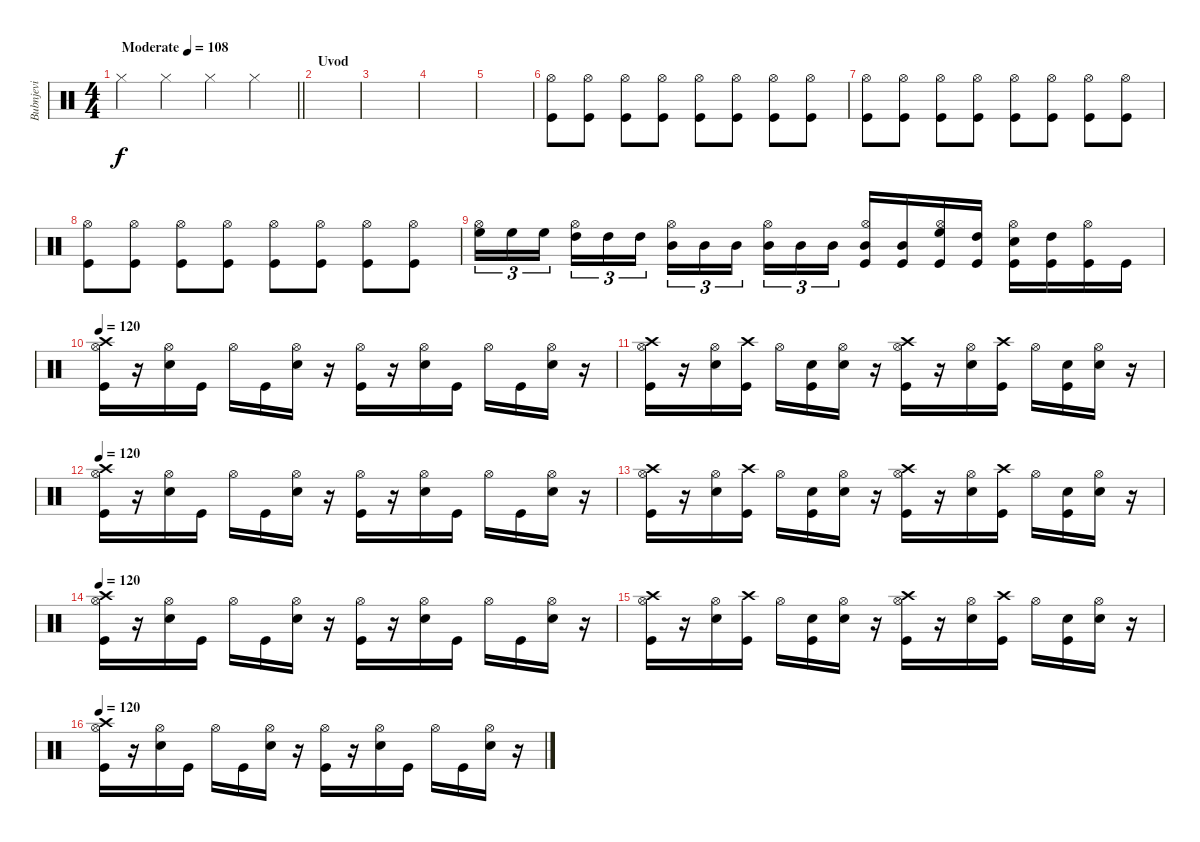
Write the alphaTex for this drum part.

\track ("Bubnjevi" "Bubnjevi") {instrument percussion}
\staff {score}
\articulation defaults
\ts (4 4)
\tempo (108 "Moderate")
\clef neutral
\barLineRight lightlight
\ks c "Hi-Hat (closed)".4{dy f} "Hi-Hat (closed)".4 "Hi-Hat (closed)".4 "Hi-Hat (closed)".4
|
\section ("" "Uvod")
|
|
|
|
("Kick (hit)" "Hi-Hat (open)").8 ("Kick (hit)" "Hi-Hat (open)").8 ("Kick (hit)" "Hi-Hat (open)").8 ("Kick (hit)" "Hi-Hat (open)").8 ("Kick (hit)" "Hi-Hat (open)").8 ("Kick (hit)" "Hi-Hat (open)").8 ("Kick (hit)" "Hi-Hat (open)").8 ("Kick (hit)" "Hi-Hat (open)").8 |
("Kick (hit)" "Hi-Hat (open)").8 ("Kick (hit)" "Hi-Hat (open)").8 ("Kick (hit)" "Hi-Hat (open)").8 ("Kick (hit)" "Hi-Hat (open)").8 ("Kick (hit)" "Hi-Hat (open)").8 ("Kick (hit)" "Hi-Hat (open)").8 ("Kick (hit)" "Hi-Hat (open)").8 ("Kick (hit)" "Hi-Hat (open)").8 |
("Kick (hit)" "Hi-Hat (open)").8 ("Kick (hit)" "Hi-Hat (open)").8 ("Kick (hit)" "Hi-Hat (open)").8 ("Kick (hit)" "Hi-Hat (open)").8 ("Kick (hit)" "Hi-Hat (open)").8 ("Kick (hit)" "Hi-Hat (open)").8 ("Kick (hit)" "Hi-Hat (open)").8 ("Kick (hit)" "Hi-Hat (open)").8 |
("High Floor Tom (hit)" "Hi-Hat (open)").16{tu (3 2)} "High Floor Tom (hit)".16{tu (3 2)} "High Floor Tom (hit)".16{tu (3 2) beam splitsecondary} ("High Tom (hit)" "Hi-Hat (open)").16{tu (3 2)} "High Tom (hit)".16{tu (3 2)} "High Tom (hit)".16{tu (3 2)} ("Mid Tom (hit)" "Hi-Hat (open)").16{tu (3 2)} "Mid Tom (hit)".16{tu (3 2)} "Mid Tom (hit)".16{tu (3 2) beam splitsecondary} ("Mid Tom (hit)" "Hi-Hat (open)").16{tu (3 2)} "Mid Tom (hit)".16{tu (3 2)} "Mid Tom (hit)".16{tu (3 2)} ("Kick (hit)" "Mid Tom (hit)" "Hi-Hat (open)").16 ("Kick (hit)" "Mid Tom (hit)").16 ("Kick (hit)" "High Floor Tom (hit)" "Hi-Hat (open)").16 ("Kick (hit)" "High Tom (hit)").16 ("Kick (hit)" "Electric Snare (hit)" "Hi-Hat (open)").16 ("Kick (hit)" "High Tom (hit)").16 ("Kick (hit)" "Hi-Hat (open)").16 "Kick (hit)".16 |
\tempo 120
("Kick (hit)" "Hi-Hat (open)" "Crash high (hit)").16 r.16 ("Snare (hit) 2" "Hi-Hat (open)").16 "Kick (hit)".16 "Hi-Hat (open)".16 "Kick (hit)".16 ("Snare (hit) 2" "Hi-Hat (open)").16 r.16 ("Kick (hit)" "Hi-Hat (open)").16 r.16 ("Snare (hit) 2" "Hi-Hat (open)").16 "Kick (hit)".16 "Hi-Hat (open)".16 "Kick (hit)".16 ("Snare (hit) 2" "Hi-Hat (open)").16 r.16 |
("Kick (hit)" "Hi-Hat (open)" "Crash high (hit)").16 r.16 ("Snare (hit) 2" "Hi-Hat (open)").16 ("Kick (hit)" "Crash high (hit)").16 "Hi-Hat (open)".16 ("Kick (hit)" "Snare (hit) 2").16 ("Snare (hit) 2" "Hi-Hat (open)").16 r.16 ("Kick (hit)" "Hi-Hat (open)" "Crash high (hit)").16 r.16 ("Snare (hit) 2" "Hi-Hat (open)").16 ("Kick (hit)" "Crash high (hit)").16 "Hi-Hat (open)".16 ("Kick (hit)" "Snare (hit) 2").16 ("Snare (hit) 2" "Hi-Hat (open)").16 r.16 |
\tempo 120
("Kick (hit)" "Hi-Hat (open)" "Crash high (hit)").16 r.16 ("Snare (hit) 2" "Hi-Hat (open)").16 "Kick (hit)".16 "Hi-Hat (open)".16 "Kick (hit)".16 ("Snare (hit) 2" "Hi-Hat (open)").16 r.16 ("Kick (hit)" "Hi-Hat (open)").16 r.16 ("Snare (hit) 2" "Hi-Hat (open)").16 "Kick (hit)".16 "Hi-Hat (open)".16 "Kick (hit)".16 ("Snare (hit) 2" "Hi-Hat (open)").16 r.16 |
("Kick (hit)" "Hi-Hat (open)" "Crash high (hit)").16 r.16 ("Snare (hit) 2" "Hi-Hat (open)").16 ("Kick (hit)" "Crash high (hit)").16 "Hi-Hat (open)".16 ("Kick (hit)" "Snare (hit) 2").16 ("Snare (hit) 2" "Hi-Hat (open)").16 r.16 ("Kick (hit)" "Hi-Hat (open)" "Crash high (hit)").16 r.16 ("Snare (hit) 2" "Hi-Hat (open)").16 ("Kick (hit)" "Crash high (hit)").16 "Hi-Hat (open)".16 ("Kick (hit)" "Snare (hit) 2").16 ("Snare (hit) 2" "Hi-Hat (open)").16 r.16 |
\tempo 120
("Kick (hit)" "Hi-Hat (open)" "Crash high (hit)").16 r.16 ("Snare (hit) 2" "Hi-Hat (open)").16 "Kick (hit)".16 "Hi-Hat (open)".16 "Kick (hit)".16 ("Snare (hit) 2" "Hi-Hat (open)").16 r.16 ("Kick (hit)" "Hi-Hat (open)").16 r.16 ("Snare (hit) 2" "Hi-Hat (open)").16 "Kick (hit)".16 "Hi-Hat (open)".16 "Kick (hit)".16 ("Snare (hit) 2" "Hi-Hat (open)").16 r.16 |
("Kick (hit)" "Hi-Hat (open)" "Crash high (hit)").16 r.16 ("Snare (hit) 2" "Hi-Hat (open)").16 ("Kick (hit)" "Crash high (hit)").16 "Hi-Hat (open)".16 ("Kick (hit)" "Snare (hit) 2").16 ("Snare (hit) 2" "Hi-Hat (open)").16 r.16 ("Kick (hit)" "Hi-Hat (open)" "Crash high (hit)").16 r.16 ("Snare (hit) 2" "Hi-Hat (open)").16 ("Kick (hit)" "Crash high (hit)").16 "Hi-Hat (open)".16 ("Kick (hit)" "Snare (hit) 2").16 ("Snare (hit) 2" "Hi-Hat (open)").16 r.16 |
\tempo 120
("Kick (hit)" "Hi-Hat (open)" "Crash high (hit)").16 r.16 ("Snare (hit) 2" "Hi-Hat (open)").16 "Kick (hit)".16 "Hi-Hat (open)".16 "Kick (hit)".16 ("Snare (hit) 2" "Hi-Hat (open)").16 r.16 ("Kick (hit)" "Hi-Hat (open)").16 r.16 ("Snare (hit) 2" "Hi-Hat (open)").16 "Kick (hit)".16 "Hi-Hat (open)".16 "Kick (hit)".16 ("Snare (hit) 2" "Hi-Hat (open)").16 r.16
